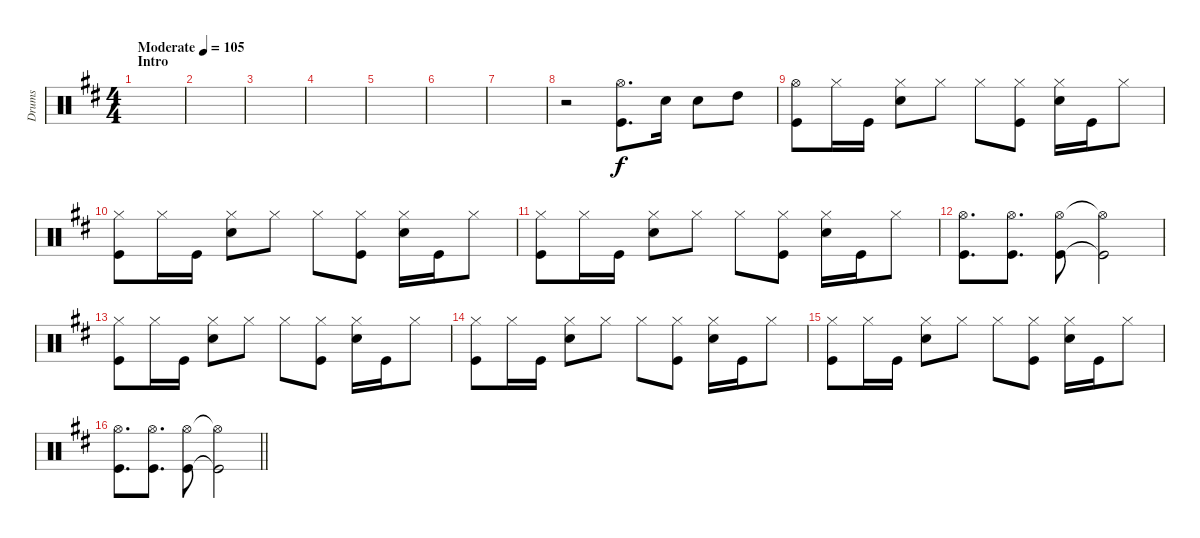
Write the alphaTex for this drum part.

\track ("Drums" "Drums") {instrument percussion}
\staff {score}
\articulation defaults
\ts (4 4)
\section ("" "Intro")
\tempo (105 "Moderate")
\clef neutral
\ks d
|
|
|
|
|
|
|
r.2 ("Hi-Hat (open)" "Kick (hit)").8{d} "Snare (hit) 2".16 "Snare (hit) 2".8 "High Tom (hit)".8 |
("Kick (hit)" "Hi-Hat (open)").8 "Hi-Hat (closed)".16 "Kick (hit)".16 ("Hi-Hat (closed)" "Snare (hit) 2").8 "Hi-Hat (closed)".8 "Hi-Hat (closed)".8 ("Hi-Hat (closed)" "Kick (hit)").8 ("Hi-Hat (closed)" "Snare (hit) 2").16 "Kick (hit)".16 "Hi-Hat (closed)".8 |
("Kick (hit)" "Hi-Hat (closed)").8 "Hi-Hat (closed)".16 "Kick (hit)".16 ("Hi-Hat (closed)" "Snare (hit) 2").8 "Hi-Hat (closed)".8 "Hi-Hat (closed)".8 ("Hi-Hat (closed)" "Kick (hit)").8 ("Hi-Hat (closed)" "Snare (hit) 2").16 "Kick (hit)".16 "Hi-Hat (closed)".8 |
("Kick (hit)" "Hi-Hat (closed)").8 "Hi-Hat (closed)".16 "Kick (hit)".16 ("Hi-Hat (closed)" "Snare (hit) 2").8 "Hi-Hat (closed)".8 "Hi-Hat (closed)".8 ("Hi-Hat (closed)" "Kick (hit)").8 ("Hi-Hat (closed)" "Snare (hit) 2").16 "Kick (hit)".16 "Hi-Hat (closed)".8 |
("Hi-Hat (open)" "Kick (hit)").8{d} ("Kick (hit)" "Hi-Hat (open)").8{d} ("Kick (hit)" "Hi-Hat (open)").8 ("Kick (hit)"{t} "Hi-Hat (open)"{t}).2 |
("Kick (hit)" "Hi-Hat (closed)").8 "Hi-Hat (closed)".16 "Kick (hit)".16 ("Hi-Hat (closed)" "Snare (hit) 2").8 "Hi-Hat (closed)".8 "Hi-Hat (closed)".8 ("Hi-Hat (closed)" "Kick (hit)").8 ("Hi-Hat (closed)" "Snare (hit) 2").16 "Kick (hit)".16 "Hi-Hat (closed)".8 |
("Kick (hit)" "Hi-Hat (closed)").8 "Hi-Hat (closed)".16 "Kick (hit)".16 ("Hi-Hat (closed)" "Snare (hit) 2").8 "Hi-Hat (closed)".8 "Hi-Hat (closed)".8 ("Hi-Hat (closed)" "Kick (hit)").8 ("Hi-Hat (closed)" "Snare (hit) 2").16 "Kick (hit)".16 "Hi-Hat (closed)".8 |
("Kick (hit)" "Hi-Hat (closed)").8 "Hi-Hat (closed)".16 "Kick (hit)".16 ("Hi-Hat (closed)" "Snare (hit) 2").8 "Hi-Hat (closed)".8 "Hi-Hat (closed)".8 ("Hi-Hat (closed)" "Kick (hit)").8 ("Hi-Hat (closed)" "Snare (hit) 2").16 "Kick (hit)".16 "Hi-Hat (closed)".8 |
\barLineRight lightlight
("Hi-Hat (open)" "Kick (hit)").8{d} ("Kick (hit)" "Hi-Hat (open)").8{d} ("Kick (hit)" "Hi-Hat (open)").8 ("Kick (hit)"{t} "Hi-Hat (open)"{t}).2
